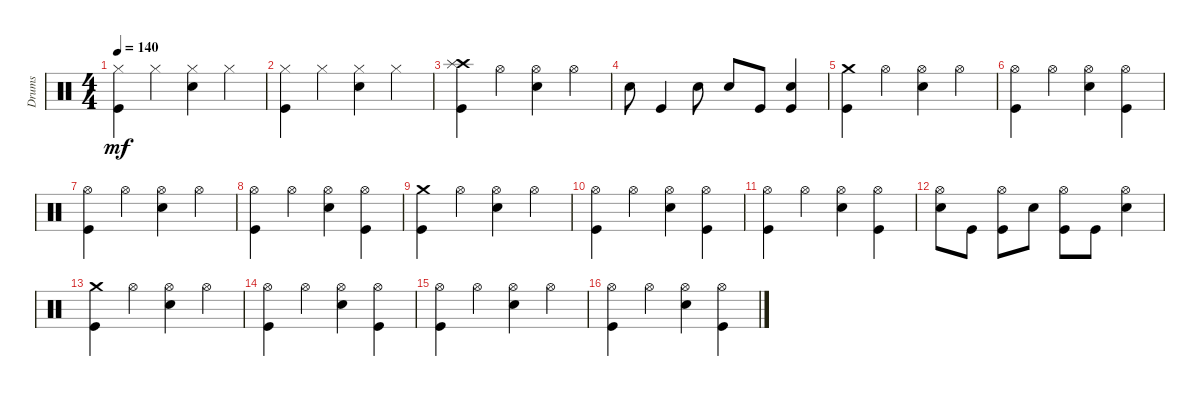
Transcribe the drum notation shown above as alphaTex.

\track ("Drums" "Drums") {instrument percussion}
\staff {score}
\articulation defaults
\ts (4 4)
\tempo 140
\clef neutral
\ks c
("Hi-Hat (closed)" "Kick (hit)").4{dy mf} "Hi-Hat (closed)".4 ("Hi-Hat (closed)" "Snare (hit) 2").4 "Hi-Hat (closed)".4 |
("Hi-Hat (closed)" "Kick (hit)").4 "Hi-Hat (closed)".4 ("Hi-Hat (closed)" "Snare (hit) 2").4 "Hi-Hat (closed)".4 |
("Kick (hit)" "Crash high (hit)" "Splash (hit)").4 "Hi-Hat (open)".4 ("Hi-Hat (open)" "Snare (hit) 2").4 "Hi-Hat (open)".4 |
"Snare (hit) 2".8 "Kick (hit)".4 "Snare (hit) 2".8 "Snare (hit) 2".8 "Kick (hit)".8 ("Kick (hit)" "Snare (hit) 2").4 |
("Crash medium (hit)" "Kick (hit)").4 "Hi-Hat (open)".4 ("Hi-Hat (open)" "Snare (hit) 2").4 "Hi-Hat (open)".4 |
("Kick (hit)" "Hi-Hat (open)").4 "Hi-Hat (open)".4 ("Hi-Hat (open)" "Snare (hit) 2").4 ("Hi-Hat (open)" "Kick (hit)").4 |
("Hi-Hat (open)" "Kick (hit)").4 "Hi-Hat (open)".4 ("Hi-Hat (open)" "Snare (hit) 2").4 "Hi-Hat (open)".4 |
("Hi-Hat (open)" "Kick (hit)").4 "Hi-Hat (open)".4 ("Hi-Hat (open)" "Snare (hit) 2").4 ("Hi-Hat (open)" "Kick (hit)").4 |
("Crash medium (hit)" "Kick (hit)").4 "Hi-Hat (open)".4 ("Hi-Hat (open)" "Snare (hit) 2").4 "Hi-Hat (open)".4 |
("Kick (hit)" "Hi-Hat (open)").4 "Hi-Hat (open)".4 ("Hi-Hat (open)" "Snare (hit) 2").4 ("Hi-Hat (open)" "Kick (hit)").4 |
("Hi-Hat (open)" "Kick (hit)").4 "Hi-Hat (open)".4 ("Hi-Hat (open)" "Snare (hit) 2").4 ("Hi-Hat (open)" "Kick (hit)").4 |
("Snare (hit) 2" "Hi-Hat (open)").8 "Kick (hit)".8 ("Kick (hit)" "Hi-Hat (open)").8 "Snare (hit) 2".8 ("Kick (hit)" "Hi-Hat (open)").8 "Kick (hit)".8 ("Snare (hit) 2" "Hi-Hat (open)").4 |
("Crash medium (hit)" "Kick (hit)").4 "Hi-Hat (open)".4 ("Hi-Hat (open)" "Snare (hit) 2").4 "Hi-Hat (open)".4 |
("Kick (hit)" "Hi-Hat (open)").4 "Hi-Hat (open)".4 ("Hi-Hat (open)" "Snare (hit) 2").4 ("Hi-Hat (open)" "Kick (hit)").4 |
("Hi-Hat (open)" "Kick (hit)").4 "Hi-Hat (open)".4 ("Hi-Hat (open)" "Snare (hit) 2").4 "Hi-Hat (open)".4 |
("Hi-Hat (open)" "Kick (hit)").4 "Hi-Hat (open)".4 ("Hi-Hat (open)" "Snare (hit) 2").4 ("Hi-Hat (open)" "Kick (hit)").4
